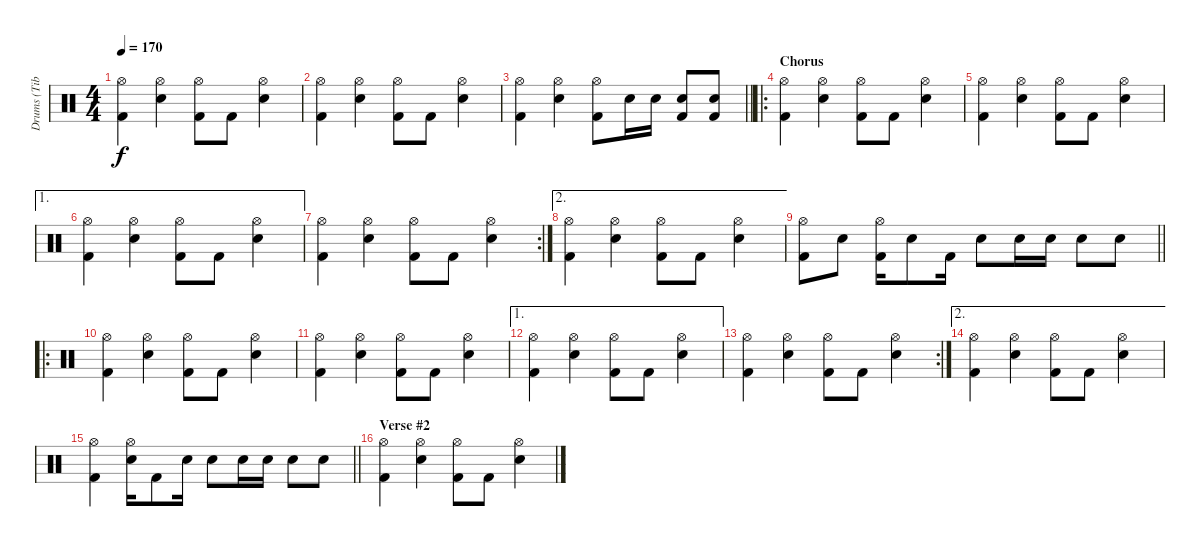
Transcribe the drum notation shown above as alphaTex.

\track ("Drums (Tibcsi Kiss)" "Drums (Tib") {instrument percussion}
\staff {score}
\articulation defaults
\ts (4 4)
\tempo 170
\clef neutral
\ks c
("Hi-Hat (open)" "Kick (hit) 2").4{dy f} ("Hi-Hat (open)" "Snare (hit) 2").4 ("Hi-Hat (open)" "Kick (hit) 2").8 "Kick (hit) 2".8 ("Hi-Hat (open)" "Snare (hit) 2").4 |
("Hi-Hat (open)" "Kick (hit) 2").4 ("Hi-Hat (open)" "Snare (hit) 2").4 ("Hi-Hat (open)" "Kick (hit) 2").8 "Kick (hit) 2".8 ("Hi-Hat (open)" "Snare (hit) 2").4 |
\barLineRight lightlight
("Hi-Hat (open)" "Kick (hit) 2").4 ("Hi-Hat (open)" "Snare (hit) 2").4 ("Hi-Hat (open)" "Kick (hit) 2").8 "Snare (hit) 2".16 "Snare (hit) 2".16 ("Snare (hit) 2" "Kick (hit) 2").8 ("Snare (hit) 2" "Kick (hit) 2").8 |
\ro
\section ("" "Chorus")
("Hi-Hat (open)" "Kick (hit) 2").4 ("Hi-Hat (open)" "Snare (hit) 2").4 ("Hi-Hat (open)" "Kick (hit) 2").8 "Kick (hit) 2".8 ("Hi-Hat (open)" "Snare (hit) 2").4 |
("Hi-Hat (open)" "Kick (hit) 2").4 ("Hi-Hat (open)" "Snare (hit) 2").4 ("Hi-Hat (open)" "Kick (hit) 2").8 "Kick (hit) 2".8 ("Hi-Hat (open)" "Snare (hit) 2").4 |
\ae 1
("Hi-Hat (open)" "Kick (hit) 2").4 ("Hi-Hat (open)" "Snare (hit) 2").4 ("Hi-Hat (open)" "Kick (hit) 2").8 "Kick (hit) 2".8 ("Hi-Hat (open)" "Snare (hit) 2").4 |
\rc 2
("Hi-Hat (open)" "Kick (hit) 2").4 ("Hi-Hat (open)" "Snare (hit) 2").4 ("Hi-Hat (open)" "Kick (hit) 2").8 "Kick (hit) 2".8 ("Hi-Hat (open)" "Snare (hit) 2").4 |
\ae 2
("Hi-Hat (open)" "Kick (hit) 2").4 ("Hi-Hat (open)" "Snare (hit) 2").4 ("Hi-Hat (open)" "Kick (hit) 2").8 "Kick (hit) 2".8 ("Hi-Hat (open)" "Snare (hit) 2").4 |
\barLineRight lightlight
("Hi-Hat (open)" "Kick (hit) 2").8 "Snare (hit) 2".8 ("Hi-Hat (open)" "Kick (hit) 2").16 "Snare (hit) 2".8 "Kick (hit) 2".16 "Snare (hit) 2".8 "Snare (hit) 2".16 "Snare (hit) 2".16 "Snare (hit) 2".8 "Snare (hit) 2".8 |
\ro
("Hi-Hat (open)" "Kick (hit) 2").4 ("Hi-Hat (open)" "Snare (hit) 2").4 ("Hi-Hat (open)" "Kick (hit) 2").8 "Kick (hit) 2".8 ("Hi-Hat (open)" "Snare (hit) 2").4 |
("Hi-Hat (open)" "Kick (hit) 2").4 ("Hi-Hat (open)" "Snare (hit) 2").4 ("Hi-Hat (open)" "Kick (hit) 2").8 "Kick (hit) 2".8 ("Hi-Hat (open)" "Snare (hit) 2").4 |
\ae 1
("Hi-Hat (open)" "Kick (hit) 2").4 ("Hi-Hat (open)" "Snare (hit) 2").4 ("Hi-Hat (open)" "Kick (hit) 2").8 "Kick (hit) 2".8 ("Hi-Hat (open)" "Snare (hit) 2").4 |
\rc 2
("Hi-Hat (open)" "Kick (hit) 2").4 ("Hi-Hat (open)" "Snare (hit) 2").4 ("Hi-Hat (open)" "Kick (hit) 2").8 "Kick (hit) 2".8 ("Hi-Hat (open)" "Snare (hit) 2").4 |
\ae 2
("Hi-Hat (open)" "Kick (hit) 2").4 ("Hi-Hat (open)" "Snare (hit) 2").4 ("Hi-Hat (open)" "Kick (hit) 2").8 "Kick (hit) 2".8 ("Hi-Hat (open)" "Snare (hit) 2").4 |
\barLineRight lightlight
("Hi-Hat (open)" "Kick (hit) 2").4 ("Hi-Hat (open)" "Snare (hit) 2").16 "Kick (hit) 2".8 "Snare (hit) 2".16 "Snare (hit) 2".8 "Snare (hit) 2".16 "Snare (hit) 2".16 "Snare (hit) 2".8 "Snare (hit) 2".8 |
\section ("" "Verse #2")
("Hi-Hat (open)" "Kick (hit) 2").4 ("Hi-Hat (open)" "Snare (hit) 2").4 ("Hi-Hat (open)" "Kick (hit) 2").8 "Kick (hit) 2".8 ("Hi-Hat (open)" "Snare (hit) 2").4
